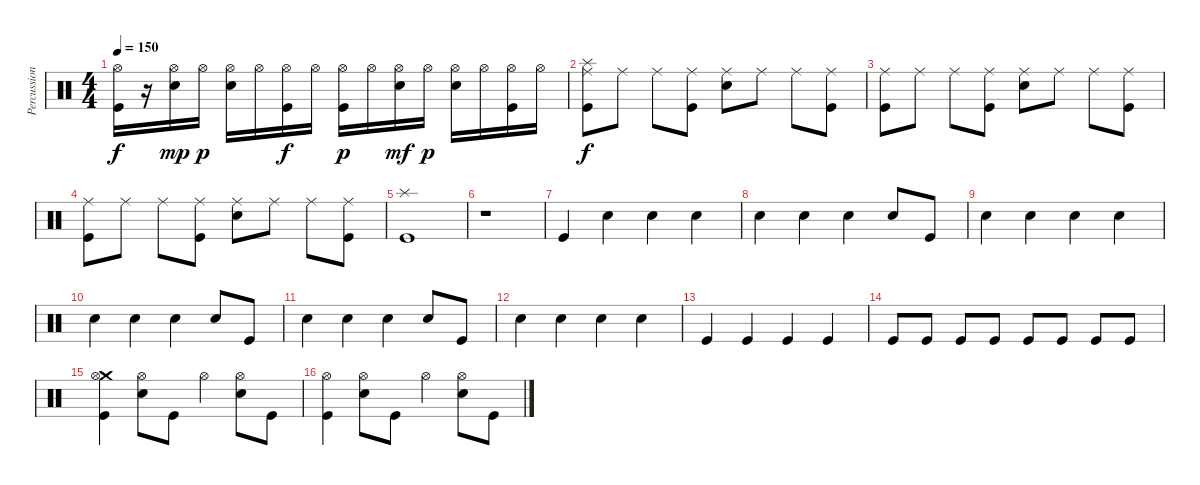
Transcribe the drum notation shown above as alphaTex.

\track ("Percussions" "Percussion") {instrument percussion}
\staff {score}
\articulation defaults
\ts (4 4)
\tempo 150
\clef neutral
\ks c
("Hi-Hat (open)" "Kick (hit)").16{dy f} r.16 ("Hi-Hat (open)" "Snare (hit)").16{dy mp} "Hi-Hat (open)".16{dy p} ("Hi-Hat (open)" "Electric Snare (hit)").16 "Hi-Hat (open)".16 ("Hi-Hat (open)" "Kick (hit)").16{dy f} "Hi-Hat (open)".16 ("Hi-Hat (open)" "Kick (hit)").16{dy p} "Hi-Hat (open)".16 ("Hi-Hat (open)" "Electric Snare (hit)").16{dy mf} "Hi-Hat (open)".16{dy p} ("Hi-Hat (open)" "Snare (hit)").16 "Hi-Hat (open)".16 ("Hi-Hat (open)" "Kick (hit)").16 "Hi-Hat (open)".16 |
("Splash (hit)" "Ride (middle)" "Kick (hit)").8{dy f} "Ride (middle)".8 "Ride (middle)".8 ("Ride (middle)" "Kick (hit)").8 ("Ride (middle)" "Electric Snare (hit)").8 "Ride (middle)".8 "Ride (middle)".8 ("Ride (middle)" "Kick (hit)").8 |
("Ride (middle)" "Kick (hit)").8 "Ride (middle)".8 "Ride (middle)".8 ("Ride (middle)" "Kick (hit)").8 ("Ride (middle)" "Electric Snare (hit)").8 "Ride (middle)".8 "Ride (middle)".8 ("Ride (middle)" "Kick (hit)").8 |
("Ride (middle)" "Kick (hit)").8 "Ride (middle)".8 "Ride (middle)".8 ("Ride (middle)" "Kick (hit)").8 ("Ride (middle)" "Electric Snare (hit)").8 "Ride (middle)".8 "Ride (middle)".8 ("Ride (middle)" "Kick (hit)").8 |
("Splash (hit)" "Kick (hit)").1 |
r.1 |
"Kick (hit)".4 "Electric Snare (hit)".4 "Snare (hit)".4 "Electric Snare (hit)".4 |
"Snare (hit)".4 "Electric Snare (hit)".4 "Snare (hit)".4 "Electric Snare (hit)".8 "Kick (hit)".8 |
"Snare (hit)".4 "Electric Snare (hit)".4 "Snare (hit)".4 "Electric Snare (hit)".4 |
"Snare (hit)".4 "Electric Snare (hit)".4 "Snare (hit)".4 "Electric Snare (hit)".8 "Kick (hit)".8 |
"Snare (hit)".4 "Electric Snare (hit)".4 "Snare (hit)".4 "Electric Snare (hit)".8 "Kick (hit)".8 |
"Snare (hit)".4 "Electric Snare (hit)".4 "Snare (hit)".4 "Electric Snare (hit)".4 |
"Kick (hit)".4 "Kick (hit)".4 "Kick (hit)".4 "Kick (hit)".4 |
"Kick (hit)".8 "Kick (hit)".8 "Kick (hit)".8 "Kick (hit)".8 "Kick (hit)".8 "Kick (hit)".8 "Kick (hit)".8 "Kick (hit)".8 |
("Crash medium (hit)" "Kick (hit)" "Hi-Hat (open)").4 ("Hi-Hat (open)" "Electric Snare (hit)").8 "Kick (hit)".8 "Hi-Hat (open)".4 ("Hi-Hat (open)" "Electric Snare (hit)").8 "Kick (hit)".8 |
("Kick (hit)" "Hi-Hat (open)").4 ("Hi-Hat (open)" "Electric Snare (hit)").8 "Kick (hit)".8 "Hi-Hat (open)".4 ("Hi-Hat (open)" "Electric Snare (hit)").8 "Kick (hit)".8
